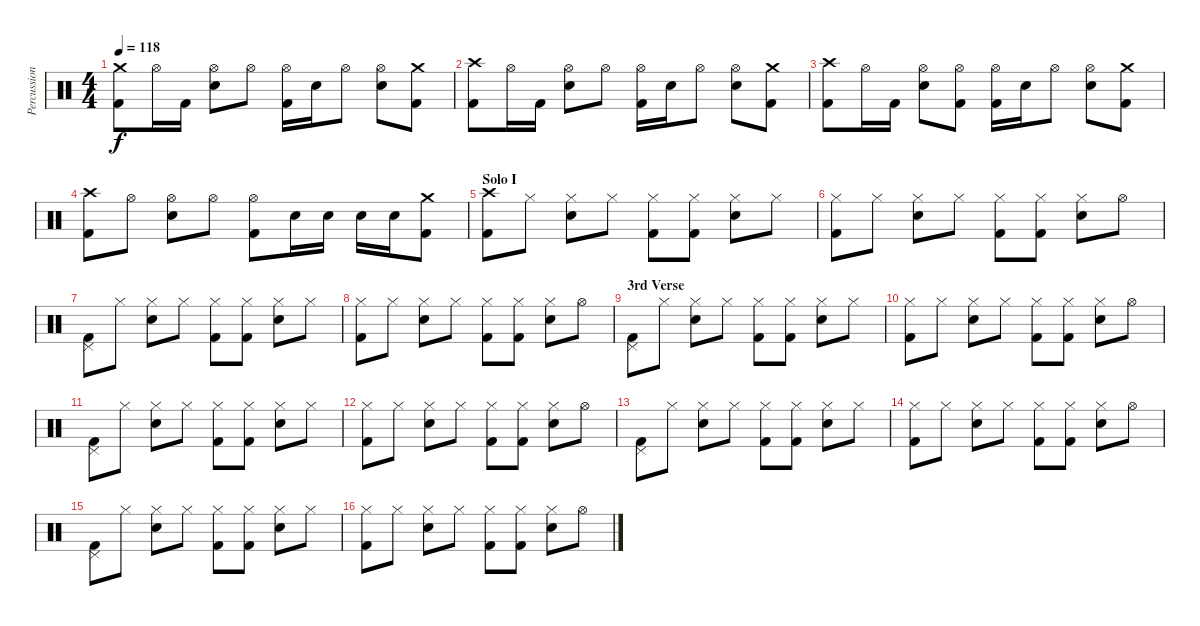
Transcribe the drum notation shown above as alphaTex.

\track ("Percussion" "Percussion") {instrument percussion}
\staff {score}
\articulation defaults
\ts (4 4)
\tempo 118
\clef neutral
\ks c
("Kick (hit) 2" "Crash medium (hit)").8{dy f} "Hi-Hat (open)".16 "Kick (hit) 2".16 ("Electric Snare (hit)" "Hi-Hat (open)").8 "Hi-Hat (open)".8 ("Kick (hit) 2" "Hi-Hat (open)").16 "Electric Snare (hit)".16 "Hi-Hat (open)".8 ("Electric Snare (hit)" "Hi-Hat (open)").8 ("Kick (hit) 2" "Crash medium (hit)").8 |
("Kick (hit) 2" "Crash high (hit)").8 "Hi-Hat (open)".16 "Kick (hit) 2".16 ("Electric Snare (hit)" "Hi-Hat (open)").8 "Hi-Hat (open)".8 ("Kick (hit) 2" "Hi-Hat (open)").16 "Electric Snare (hit)".16 "Hi-Hat (open)".8 ("Electric Snare (hit)" "Hi-Hat (open)").8 ("Kick (hit) 2" "Crash medium (hit)").8 |
("Kick (hit) 2" "Crash high (hit)").8 "Hi-Hat (open)".16 "Kick (hit) 2".16 ("Electric Snare (hit)" "Hi-Hat (open)").8 ("Kick (hit) 2" "Hi-Hat (open)").8 ("Kick (hit) 2" "Hi-Hat (open)").16 "Electric Snare (hit)".16 "Hi-Hat (open)".8 ("Electric Snare (hit)" "Hi-Hat (open)").8 ("Kick (hit) 2" "Crash medium (hit)").8 |
("Kick (hit) 2" "Crash high (hit)").8 "Hi-Hat (open)".8 ("Electric Snare (hit)" "Hi-Hat (open)").8 "Hi-Hat (open)".8 ("Kick (hit) 2" "Hi-Hat (open)").8 "Electric Snare (hit)".16 "Electric Snare (hit)".16 "Electric Snare (hit)".16 "Electric Snare (hit)".16 ("Kick (hit) 2" "Crash medium (hit)").8 |
\section ("" "Solo I")
("Kick (hit) 2" "Crash high (hit)").8 "Hi-Hat (closed)".8 ("Electric Snare (hit)" "Hi-Hat (closed)").8 "Hi-Hat (closed)".8 ("Kick (hit) 2" "Hi-Hat (closed)").8 ("Kick (hit) 2" "Hi-Hat (closed)").8 ("Electric Snare (hit)" "Hi-Hat (closed)").8 "Hi-Hat (closed)".8 |
("Kick (hit) 2" "Hi-Hat (closed)").8 "Hi-Hat (closed)".8 ("Electric Snare (hit)" "Hi-Hat (closed)").8 "Hi-Hat (closed)".8 ("Kick (hit) 2" "Hi-Hat (closed)").8 ("Kick (hit) 2" "Hi-Hat (closed)").8 ("Electric Snare (hit)" "Hi-Hat (closed)").8 "Hi-Hat (open)".8 |
("Kick (hit) 2" "Pedal Hi-Hat (hit)").8 "Hi-Hat (closed)".8 ("Electric Snare (hit)" "Hi-Hat (closed)").8 "Hi-Hat (closed)".8 ("Kick (hit) 2" "Hi-Hat (closed)").8 ("Kick (hit) 2" "Hi-Hat (closed)").8 ("Electric Snare (hit)" "Hi-Hat (closed)").8 "Hi-Hat (closed)".8 |
("Kick (hit) 2" "Hi-Hat (closed)").8 "Hi-Hat (closed)".8 ("Electric Snare (hit)" "Hi-Hat (closed)").8 "Hi-Hat (closed)".8 ("Kick (hit) 2" "Hi-Hat (closed)").8 ("Kick (hit) 2" "Hi-Hat (closed)").8 ("Electric Snare (hit)" "Hi-Hat (closed)").8 "Hi-Hat (open)".8 |
\section ("" "3rd Verse")
("Kick (hit) 2" "Pedal Hi-Hat (hit)").8 "Hi-Hat (closed)".8 ("Electric Snare (hit)" "Hi-Hat (closed)").8 "Hi-Hat (closed)".8 ("Kick (hit) 2" "Hi-Hat (closed)").8 ("Kick (hit) 2" "Hi-Hat (closed)").8 ("Electric Snare (hit)" "Hi-Hat (closed)").8 "Hi-Hat (closed)".8 |
("Kick (hit) 2" "Hi-Hat (closed)").8 "Hi-Hat (closed)".8 ("Electric Snare (hit)" "Hi-Hat (closed)").8 "Hi-Hat (closed)".8 ("Kick (hit) 2" "Hi-Hat (closed)").8 ("Kick (hit) 2" "Hi-Hat (closed)").8 ("Electric Snare (hit)" "Hi-Hat (closed)").8 "Hi-Hat (open)".8 |
("Kick (hit) 2" "Pedal Hi-Hat (hit)").8 "Hi-Hat (closed)".8 ("Electric Snare (hit)" "Hi-Hat (closed)").8 "Hi-Hat (closed)".8 ("Kick (hit) 2" "Hi-Hat (closed)").8 ("Kick (hit) 2" "Hi-Hat (closed)").8 ("Electric Snare (hit)" "Hi-Hat (closed)").8 "Hi-Hat (closed)".8 |
("Kick (hit) 2" "Hi-Hat (closed)").8 "Hi-Hat (closed)".8 ("Electric Snare (hit)" "Hi-Hat (closed)").8 "Hi-Hat (closed)".8 ("Kick (hit) 2" "Hi-Hat (closed)").8 ("Kick (hit) 2" "Hi-Hat (closed)").8 ("Electric Snare (hit)" "Hi-Hat (closed)").8 "Hi-Hat (open)".8 |
("Kick (hit) 2" "Pedal Hi-Hat (hit)").8 "Hi-Hat (closed)".8 ("Electric Snare (hit)" "Hi-Hat (closed)").8 "Hi-Hat (closed)".8 ("Kick (hit) 2" "Hi-Hat (closed)").8 ("Kick (hit) 2" "Hi-Hat (closed)").8 ("Electric Snare (hit)" "Hi-Hat (closed)").8 "Hi-Hat (closed)".8 |
("Kick (hit) 2" "Hi-Hat (closed)").8 "Hi-Hat (closed)".8 ("Electric Snare (hit)" "Hi-Hat (closed)").8 "Hi-Hat (closed)".8 ("Kick (hit) 2" "Hi-Hat (closed)").8 ("Kick (hit) 2" "Hi-Hat (closed)").8 ("Electric Snare (hit)" "Hi-Hat (closed)").8 "Hi-Hat (open)".8 |
("Kick (hit) 2" "Pedal Hi-Hat (hit)").8 "Hi-Hat (closed)".8 ("Electric Snare (hit)" "Hi-Hat (closed)").8 "Hi-Hat (closed)".8 ("Kick (hit) 2" "Hi-Hat (closed)").8 ("Kick (hit) 2" "Hi-Hat (closed)").8 ("Electric Snare (hit)" "Hi-Hat (closed)").8 "Hi-Hat (closed)".8 |
("Kick (hit) 2" "Hi-Hat (closed)").8 "Hi-Hat (closed)".8 ("Electric Snare (hit)" "Hi-Hat (closed)").8 "Hi-Hat (closed)".8 ("Kick (hit) 2" "Hi-Hat (closed)").8 ("Kick (hit) 2" "Hi-Hat (closed)").8 ("Electric Snare (hit)" "Hi-Hat (closed)").8 "Hi-Hat (open)".8
